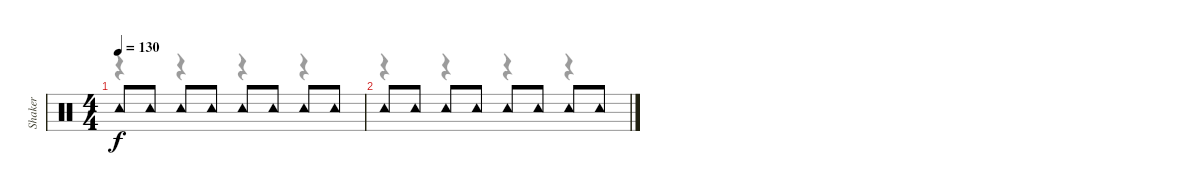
\track ("Shaker" "Shaker") {instrument percussion}
\staff {score}
\articulation defaults
\voice
\ts (4 4)
\tempo 130
\clef neutral
\ks c "Tambourine (hit)".8{dy f} "Tambourine (hit)".8 "Tambourine (hit)".8 "Tambourine (hit)".8 "Tambourine (hit)".8 "Tambourine (hit)".8 "Tambourine (hit)".8 "Tambourine (hit)".8
|
"Tambourine (hit)".8 "Tambourine (hit)".8 "Tambourine (hit)".8 "Tambourine (hit)".8 "Tambourine (hit)".8 "Tambourine (hit)".8 "Tambourine (hit)".8 "Tambourine (hit)".8
\voice
\clef neutral
\ottava regular
\simile none
\ks c
r.4{dy f} r.4 r.4 r.4 |
r.4 r.4 r.4 r.4
